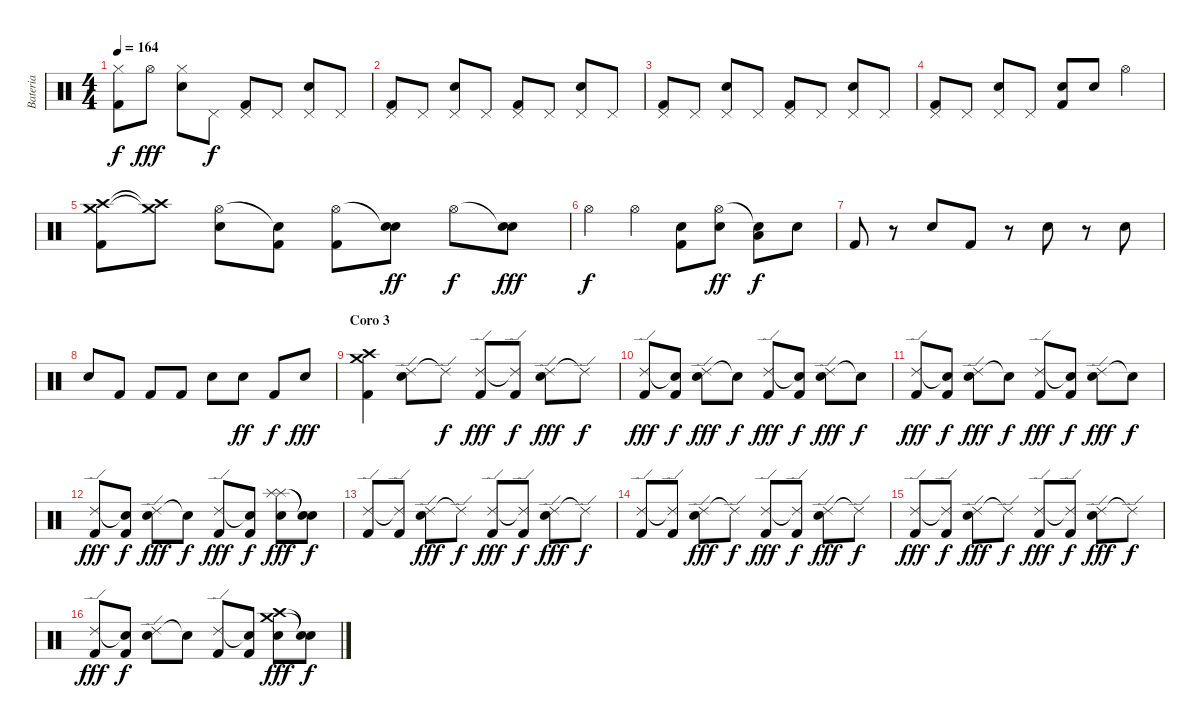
\track ("Bateria" "Bateria") {instrument percussion}
\staff {score}
\articulation defaults
\ts (4 4)
\tempo 164
\clef neutral
\ks c
("Hi-Hat (closed)" "Kick (hit) 2").8{dy f} "Hi-Hat (open)".8{dy fff} ("Hi-Hat (closed)" "Electric Snare (hit)").8 "Pedal Hi-Hat (hit)".8{dy f} ("Pedal Hi-Hat (hit)" "Kick (hit) 2").8 "Pedal Hi-Hat (hit)".8 ("Pedal Hi-Hat (hit)" "Electric Snare (hit)").8 "Pedal Hi-Hat (hit)".8 |
("Pedal Hi-Hat (hit)" "Kick (hit) 2").8 "Pedal Hi-Hat (hit)".8 ("Pedal Hi-Hat (hit)" "Electric Snare (hit)").8 "Pedal Hi-Hat (hit)".8 ("Pedal Hi-Hat (hit)" "Kick (hit) 2").8 "Pedal Hi-Hat (hit)".8 ("Pedal Hi-Hat (hit)" "Electric Snare (hit)").8 "Pedal Hi-Hat (hit)".8 |
("Pedal Hi-Hat (hit)" "Kick (hit) 2").8 "Pedal Hi-Hat (hit)".8 ("Pedal Hi-Hat (hit)" "Electric Snare (hit)").8 "Pedal Hi-Hat (hit)".8 ("Pedal Hi-Hat (hit)" "Kick (hit) 2").8 "Pedal Hi-Hat (hit)".8 ("Pedal Hi-Hat (hit)" "Electric Snare (hit)").8 "Pedal Hi-Hat (hit)".8 |
("Pedal Hi-Hat (hit)" "Kick (hit) 2").8 "Pedal Hi-Hat (hit)".8 ("Pedal Hi-Hat (hit)" "Electric Snare (hit)").8 "Pedal Hi-Hat (hit)".8 ("Electric Snare (hit)" "Kick (hit) 2").8 "Electric Snare (hit)".8 "Hi-Hat (open)".4 |
("Crash medium (hit)" "Crash high (hit)" "Kick (hit) 2").8 ("Crash medium (hit)"{t} "Crash high (hit)"{t}).8 ("Hi-Hat (open)" "Electric Snare (hit)").8 ("Snare (hit)"{t} "Kick (hit) 2").8 ("Hi-Hat (open)" "Kick (hit) 2").8 ("Snare (hit)"{t} "Electric Snare (hit)").8{dy ff} "Hi-Hat (open)".8{dy f} ("Snare (hit)"{t} "Electric Snare (hit)").8{dy fff} |
"Hi-Hat (open)".4{dy f} "Hi-Hat (open)".4 ("Electric Snare (hit)" "Kick (hit) 2").8 ("Hi-Hat (open)" "Electric Snare (hit)").8{dy ff} ("Snare (hit)"{t} "Low Tom (hit)").8{dy f} "Electric Snare (hit)".8 |
"Kick (hit) 2".8 r.8 "Electric Snare (hit)".8 "Kick (hit) 2".8 r.8 "Electric Snare (hit)".8 r.8 "Electric Snare (hit)".8 |
"Electric Snare (hit)".8 "Kick (hit) 2".8 "Kick (hit) 2".8 "Kick (hit) 2".8 "Electric Snare (hit)".8 "Electric Snare (hit)".8{dy ff} "Kick (hit) 2".8{dy f} "Electric Snare (hit)".8{dy fff} |
\section ("" "Coro 3")
("Crash medium (hit)" "Crash high (hit)" "Kick (hit) 2").4 ("Ride (edge) 2" "Electric Snare (hit)").8 "Ride (edge) 2"{t}.8{dy f} ("Ride (edge) 2" "Kick (hit) 2").8{dy fff} ("Ride (edge) 2"{t} "Kick (hit) 2").8{dy f} ("Ride (edge) 2" "Electric Snare (hit)").8{dy fff} "Ride (edge) 2"{t}.8{dy f} |
("Ride (edge) 2" "Kick (hit) 2").8{dy fff} ("Snare (hit)"{t} "Kick (hit) 2").8{dy f} ("Ride (edge) 2" "Electric Snare (hit)").8{dy fff} "Snare (hit)"{t}.8{dy f} ("Ride (edge) 2" "Kick (hit) 2").8{dy fff} ("Snare (hit)"{t} "Kick (hit) 2").8{dy f} ("Ride (edge) 2" "Electric Snare (hit)").8{dy fff} "Snare (hit)"{t}.8{dy f} |
("Ride (edge) 2" "Kick (hit) 2").8{dy fff} ("Snare (hit)"{t} "Kick (hit) 2").8{dy f} ("Ride (edge) 2" "Electric Snare (hit)").8{dy fff} "Snare (hit)"{t}.8{dy f} ("Ride (edge) 2" "Kick (hit) 2").8{dy fff} ("Snare (hit)"{t} "Kick (hit) 2").8{dy f} ("Ride (edge) 2" "Electric Snare (hit)").8{dy fff} "Snare (hit)"{t}.8{dy f} |
("Ride (edge) 2" "Kick (hit) 2").8{dy fff} ("Snare (hit)"{t} "Kick (hit) 2").8{dy f} ("Ride (edge) 2" "Electric Snare (hit)").8{dy fff} "Snare (hit)"{t}.8{dy f} ("Ride (edge) 2" "Kick (hit) 2").8{dy fff} ("Snare (hit)"{t} "Kick (hit) 2").8{dy f} ("Splash (hit)" "Splash (hit)" "Electric Snare (hit)").8{dy fff} ("Snare (hit)"{t} "Snare (hit)"{t}).8{dy f} |
("Ride (edge) 2" "Kick (hit) 2").8 ("Ride (edge) 2"{t} "Kick (hit) 2").8 ("Ride (edge) 2" "Electric Snare (hit)").8{dy fff} "Ride (edge) 2"{t}.8{dy f} ("Ride (edge) 2" "Kick (hit) 2").8{dy fff} ("Ride (edge) 2"{t} "Kick (hit) 2").8{dy f} ("Ride (edge) 2" "Electric Snare (hit)").8{dy fff} "Ride (edge) 2"{t}.8{dy f} |
("Ride (edge) 2" "Kick (hit) 2").8 ("Ride (edge) 2"{t} "Kick (hit) 2").8 ("Ride (edge) 2" "Electric Snare (hit)").8{dy fff} "Ride (edge) 2"{t}.8{dy f} ("Ride (edge) 2" "Kick (hit) 2").8{dy fff} ("Ride (edge) 2"{t} "Kick (hit) 2").8{dy f} ("Ride (edge) 2" "Electric Snare (hit)").8{dy fff} "Ride (edge) 2"{t}.8{dy f} |
("Ride (edge) 2" "Kick (hit) 2").8{dy fff} ("Ride (edge) 2"{t} "Kick (hit) 2").8{dy f} ("Ride (edge) 2" "Electric Snare (hit)").8{dy fff} "Ride (edge) 2"{t}.8{dy f} ("Ride (edge) 2" "Kick (hit) 2").8{dy fff} ("Ride (edge) 2"{t} "Kick (hit) 2").8{dy f} ("Ride (edge) 2" "Electric Snare (hit)").8{dy fff} "Ride (edge) 2"{t}.8{dy f} |
("Ride (edge) 2" "Kick (hit) 2").8{dy fff} ("Snare (hit)"{t} "Kick (hit) 2").8{dy f} ("Ride (edge) 2" "Electric Snare (hit)").8 "Snare (hit)"{t}.8 ("Ride (edge) 2" "Kick (hit) 2").8 ("Snare (hit)"{t} "Kick (hit) 2").8 ("Crash medium (hit)" "Crash high (hit)" "Electric Snare (hit)").8{dy fff} ("Snare (hit)"{t} "Snare (hit)"{t}).8{dy f}
